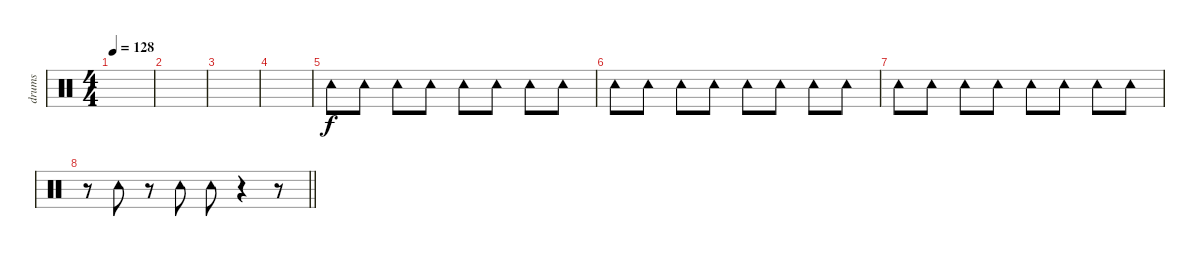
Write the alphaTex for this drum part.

\track ("drums" "drums") {instrument percussion}
\staff {score}
\articulation defaults
\ts (4 4)
\tempo 128
\clef neutral
\ks c
|
|
|
|
"Tambourine (hit)".8 "Tambourine (hit)".8 "Tambourine (hit)".8 "Tambourine (hit)".8 "Tambourine (hit)".8 "Tambourine (hit)".8 "Tambourine (hit)".8 "Tambourine (hit)".8 |
"Tambourine (hit)".8 "Tambourine (hit)".8 "Tambourine (hit)".8 "Tambourine (hit)".8 "Tambourine (hit)".8 "Tambourine (hit)".8 "Tambourine (hit)".8 "Tambourine (hit)".8 |
"Tambourine (hit)".8 "Tambourine (hit)".8 "Tambourine (hit)".8 "Tambourine (hit)".8 "Tambourine (hit)".8 "Tambourine (hit)".8 "Tambourine (hit)".8 "Tambourine (hit)".8 |
\barLineRight lightlight
r.8 "Tambourine (hit)".8 r.8 "Tambourine (hit)".8 "Tambourine (hit)".8 r.4 r.8
